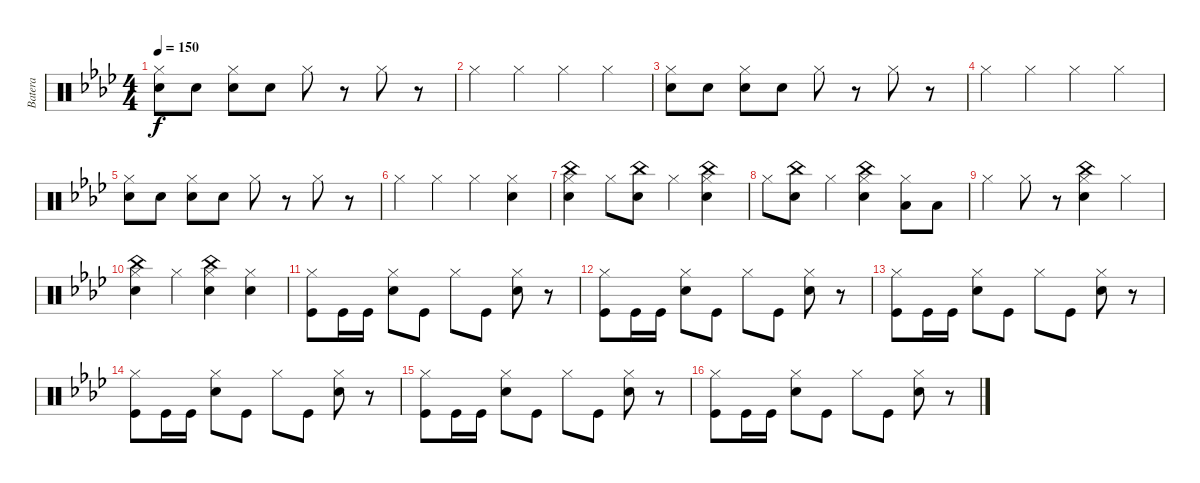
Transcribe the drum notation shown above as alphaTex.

\track ("Batera" "Batera") {instrument percussion}
\staff {score}
\articulation defaults
\ts (4 4)
\tempo 150
\clef neutral
\ks fminor
("Hi-Hat (closed)" "Snare (hit) 2").8{dy f} "Snare (hit) 2".8 ("Hi-Hat (closed)" "Snare (hit) 2").8 "Snare (hit) 2".8 "Hi-Hat (closed)".8 r.8 "Hi-Hat (closed)".8 r.8 |
"Hi-Hat (closed)".4 "Hi-Hat (closed)".4 "Hi-Hat (closed)".4 "Hi-Hat (closed)".4 |
("Hi-Hat (closed)" "Snare (hit) 2").8 "Snare (hit) 2".8 ("Hi-Hat (closed)" "Snare (hit) 2").8 "Snare (hit) 2".8 "Hi-Hat (closed)".8 r.8 "Hi-Hat (closed)".8 r.8 |
"Hi-Hat (closed)".4 "Hi-Hat (closed)".4 "Hi-Hat (closed)".4 "Hi-Hat (closed)".4 |
("Hi-Hat (closed)" "Snare (hit) 2").8 "Snare (hit) 2".8 ("Hi-Hat (closed)" "Snare (hit) 2").8 "Snare (hit) 2".8 "Hi-Hat (closed)".8 r.8 "Hi-Hat (closed)".8 r.8 |
"Hi-Hat (closed)".4 "Hi-Hat (closed)".4 "Hi-Hat (closed)".4 ("Hi-Hat (closed)" "Snare (hit) 2").4 |
("Hi-Hat (closed)" "Snare (hit) 2" "China (hit)").4 "Hi-Hat (closed)".8 ("Snare (hit) 2" "China (hit)").8 "Hi-Hat (closed)".4 ("Hi-Hat (closed)" "Snare (hit) 2" "China (hit)").4 |
"Hi-Hat (closed)".8 ("Snare (hit) 2" "China (hit)").8 "Hi-Hat (closed)".4 ("Hi-Hat (closed)" "Snare (hit) 2" "China (hit)").4 ("Hi-Hat (closed)" "Low Floor Tom (hit)").8 "Low Floor Tom (hit)".8 |
"Hi-Hat (closed)".4 "Hi-Hat (closed)".8 r.8 ("Hi-Hat (closed)" "Snare (hit) 2" "China (hit)").4 "Hi-Hat (closed)".4 |
("Hi-Hat (closed)" "Snare (hit) 2" "China (hit)").4 "Hi-Hat (closed)".4 ("Hi-Hat (closed)" "Snare (hit) 2" "China (hit)").4 ("Hi-Hat (closed)" "Snare (hit) 2").4 |
("Hi-Hat (closed)" "Kick (hit)").8 "Kick (hit)".16 "Kick (hit)".16 ("Hi-Hat (closed)" "Snare (hit) 2").8 "Kick (hit)".8 "Hi-Hat (closed)".8 "Kick (hit)".8 ("Hi-Hat (closed)" "Snare (hit) 2").8 r.8 |
("Hi-Hat (closed)" "Kick (hit)").8 "Kick (hit)".16 "Kick (hit)".16 ("Hi-Hat (closed)" "Snare (hit) 2").8 "Kick (hit)".8 "Hi-Hat (closed)".8 "Kick (hit)".8 ("Hi-Hat (closed)" "Snare (hit) 2").8 r.8 |
("Hi-Hat (closed)" "Kick (hit)").8 "Kick (hit)".16 "Kick (hit)".16 ("Hi-Hat (closed)" "Snare (hit) 2").8 "Kick (hit)".8 "Hi-Hat (closed)".8 "Kick (hit)".8 ("Hi-Hat (closed)" "Snare (hit) 2").8 r.8 |
("Hi-Hat (closed)" "Kick (hit)").8 "Kick (hit)".16 "Kick (hit)".16 ("Hi-Hat (closed)" "Snare (hit) 2").8 "Kick (hit)".8 "Hi-Hat (closed)".8 "Kick (hit)".8 ("Hi-Hat (closed)" "Snare (hit) 2").8 r.8 |
("Hi-Hat (closed)" "Kick (hit)").8 "Kick (hit)".16 "Kick (hit)".16 ("Hi-Hat (closed)" "Snare (hit) 2").8 "Kick (hit)".8 "Hi-Hat (closed)".8 "Kick (hit)".8 ("Hi-Hat (closed)" "Snare (hit) 2").8 r.8 |
("Hi-Hat (closed)" "Kick (hit)").8 "Kick (hit)".16 "Kick (hit)".16 ("Hi-Hat (closed)" "Snare (hit) 2").8 "Kick (hit)".8 "Hi-Hat (closed)".8 "Kick (hit)".8 ("Hi-Hat (closed)" "Snare (hit) 2").8 r.8
